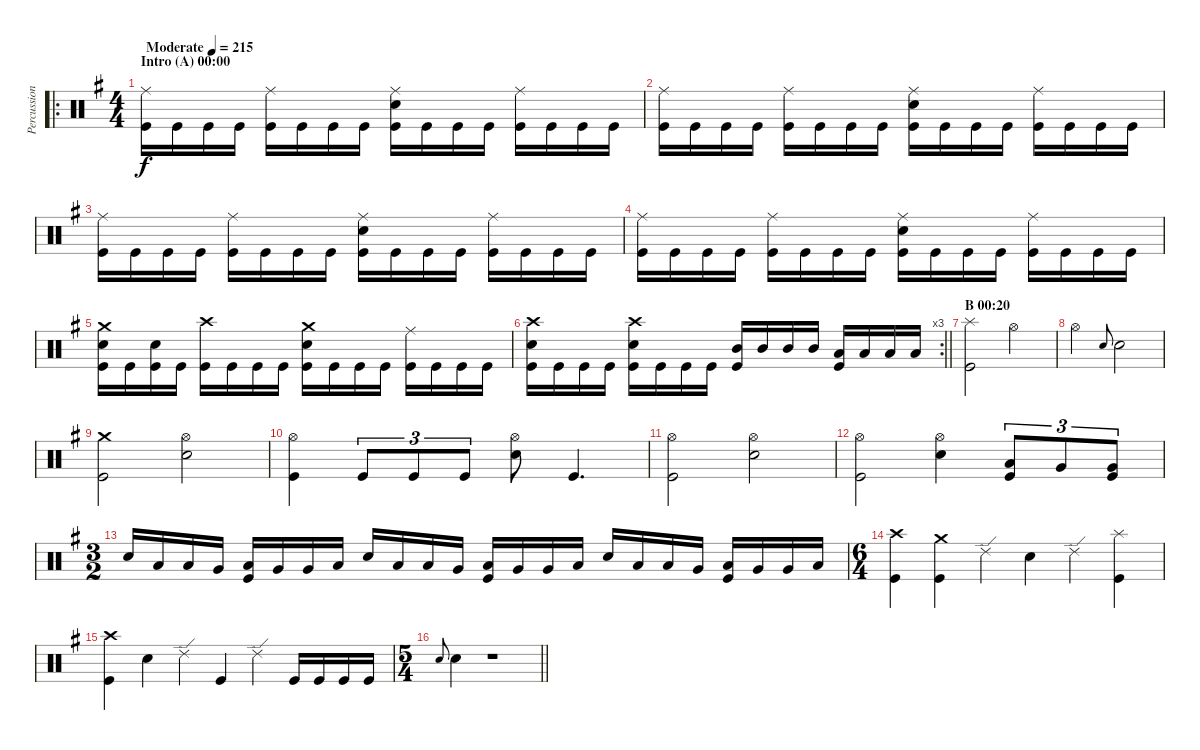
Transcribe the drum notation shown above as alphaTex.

\track ("Percussion" "Percussion") {instrument percussion}
\staff {score}
\articulation defaults
\ro
\ts (4 4)
\section ("" "Intro (A) 00:00")
\tempo (215 "Moderate")
\clef neutral
\ks eminor
("Ride (middle)" "Kick (hit)").16{dy f} "Kick (hit)".16 "Kick (hit)".16 "Kick (hit)".16 ("Ride (middle)" "Kick (hit)").16 "Kick (hit)".16 "Kick (hit)".16 "Kick (hit)".16 ("Ride (middle)" "Snare (hit) 2" "Kick (hit)").16 "Kick (hit)".16 "Kick (hit)".16 "Kick (hit)".16 ("Ride (middle)" "Kick (hit)").16 "Kick (hit)".16 "Kick (hit)".16 "Kick (hit)".16 |
("Ride (middle)" "Kick (hit)").16 "Kick (hit)".16 "Kick (hit)".16 "Kick (hit)".16 ("Ride (middle)" "Kick (hit)").16 "Kick (hit)".16 "Kick (hit)".16 "Kick (hit)".16 ("Ride (middle)" "Snare (hit) 2" "Kick (hit)").16 "Kick (hit)".16 "Kick (hit)".16 "Kick (hit)".16 ("Ride (middle)" "Kick (hit)").16 "Kick (hit)".16 "Kick (hit)".16 "Kick (hit)".16 |
("Ride (middle)" "Kick (hit)").16 "Kick (hit)".16 "Kick (hit)".16 "Kick (hit)".16 ("Ride (middle)" "Kick (hit)").16 "Kick (hit)".16 "Kick (hit)".16 "Kick (hit)".16 ("Ride (middle)" "Snare (hit) 2" "Kick (hit)").16 "Kick (hit)".16 "Kick (hit)".16 "Kick (hit)".16 ("Ride (middle)" "Kick (hit)").16 "Kick (hit)".16 "Kick (hit)".16 "Kick (hit)".16 |
("Ride (middle)" "Kick (hit)").16 "Kick (hit)".16 "Kick (hit)".16 "Kick (hit)".16 ("Ride (middle)" "Kick (hit)").16 "Kick (hit)".16 "Kick (hit)".16 "Kick (hit)".16 ("Ride (middle)" "Snare (hit) 2" "Kick (hit)").16 "Kick (hit)".16 "Kick (hit)".16 "Kick (hit)".16 ("Ride (middle)" "Kick (hit)").16 "Kick (hit)".16 "Kick (hit)".16 "Kick (hit)".16 |
("Crash medium (hit)" "Snare (hit) 2" "Kick (hit)").16 "Kick (hit)".16 ("Snare (hit) 2" "Kick (hit)").16 "Kick (hit)".16 ("Crash high (hit)" "Kick (hit)").16 "Kick (hit)".16 "Kick (hit)".16 "Kick (hit)".16 ("Crash medium (hit)" "Snare (hit) 2" "Kick (hit)").16 "Kick (hit)".16 "Kick (hit)".16 "Kick (hit)".16 ("Ride (middle)" "Kick (hit)").16 "Kick (hit)".16 "Kick (hit)".16 "Kick (hit)".16 |
\rc 3
\barLineRight lightlight
("Crash high (hit)" "Snare (hit) 2" "Kick (hit)").16 "Kick (hit)".16 "Kick (hit)".16 "Kick (hit)".16 ("Crash high (hit)" "Snare (hit) 2" "Kick (hit)").16 "Kick (hit)".16 "Kick (hit)".16 "Kick (hit)".16 ("Mid Tom (hit)" "Kick (hit)").16 "Mid Tom (hit)".16 "Mid Tom (hit)".16 "Mid Tom (hit)".16 ("Low Tom (hit)" "Kick (hit)").16 "Low Tom (hit)".16 "Low Tom (hit)".16 "Low Tom (hit)".16 |
\section ("" "B 00:20")
("Splash (hit)" "Kick (hit)").2 "Hi-Hat (open)".2 |
"Hi-Hat (open)".2 "Snare (hit) 2".8{gr onbeat} "Snare (hit) 2".2 |
("Crash medium (hit)" "Kick (hit)").2 ("Hi-Hat (open)" "Snare (hit) 2").2 |
("Hi-Hat (open)" "Kick (hit)").4 "Kick (hit)".8{tu (3 2)} "Kick (hit)".8{tu (3 2)} "Kick (hit)".8{tu (3 2)} ("Hi-Hat (open)" "Snare (hit) 2").8 "Kick (hit)".4{d} |
("Hi-Hat (open)" "Kick (hit)").2 ("Hi-Hat (open)" "Snare (hit) 2").2 |
("Hi-Hat (open)" "Kick (hit)").2 ("Hi-Hat (open)" "Snare (hit) 2").4 ("Low Floor Tom (hit)" "Kick (hit)").8{tu (3 2)} "Very Low Tom (hit)".8{tu (3 2)} ("Very Low Tom (hit)" "Kick (hit)").8{tu (3 2)} |
\ts (3 2)
"Snare (hit) 2".16 "Low Tom (hit)".16 "Low Tom (hit)".16 "Very Low Tom (hit)".16 ("Low Floor Tom (hit)" "Kick (hit)").16 "Very Low Tom (hit)".16 "Very Low Tom (hit)".16 "Low Tom (hit)".16 "Snare (hit) 2".16 "Low Tom (hit)".16 "Low Tom (hit)".16 "Very Low Tom (hit)".16 ("Low Floor Tom (hit)" "Kick (hit)").16 "Very Low Tom (hit)".16 "Very Low Tom (hit)".16 "Low Tom (hit)".16 "Snare (hit) 2".16 "Low Tom (hit)".16 "Low Tom (hit)".16 "Very Low Tom (hit)".16 ("Low Floor Tom (hit)" "Kick (hit)").16 "Very Low Tom (hit)".16 "Very Low Tom (hit)".16 "Low Tom (hit)".16 |
\ts (6 4)
("Crash high (hit)" "Kick (hit)").4 ("Crash medium (hit)" "Kick (hit)").4 "Ride (edge) 2".4 "Snare (hit) 2".4 "Ride (edge) 2".4 ("Splash (hit)" "Kick (hit)").4 |
("Crash high (hit)" "Kick (hit)").4 "Snare (hit) 2".4 "Ride (edge) 2".4 "Kick (hit)".4 "Ride (edge) 2".4 "Kick (hit)".16 "Kick (hit)".16 "Kick (hit)".16 "Kick (hit)".16 |
\ts (5 4)
\barLineRight lightlight "Snare (hit) 2".8{gr onbeat} "Snare (hit) 2".4
r.1
